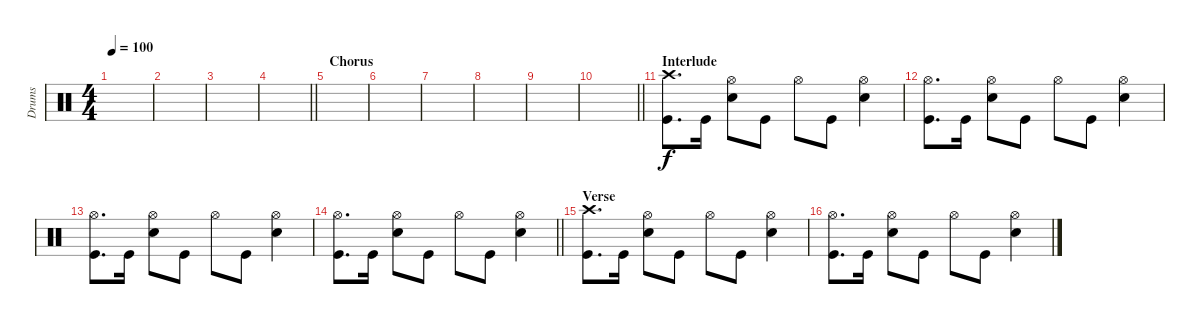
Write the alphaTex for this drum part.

\track ("Drums" "Drums") {instrument percussion}
\staff {score}
\articulation defaults
\ts (4 4)
\tempo 100
\clef neutral
\ks c
|
|
|
\barLineRight lightlight
|
\section ("" "Chorus")
|
|
|
|
|
\barLineRight lightlight
|
\section ("" "Interlude")
("Crash high (hit)" "Kick (hit)").8{d} "Kick (hit)".16 ("Hi-Hat (open)" "Snare (hit) 2").8 "Kick (hit)".8 "Hi-Hat (open)".8 "Kick (hit)".8 ("Hi-Hat (open)" "Snare (hit) 2").4 |
("Hi-Hat (open)" "Kick (hit)").8{d} "Kick (hit)".16 ("Hi-Hat (open)" "Snare (hit) 2").8 "Kick (hit)".8 "Hi-Hat (open)".8 "Kick (hit)".8 ("Hi-Hat (open)" "Snare (hit) 2").4 |
("Hi-Hat (open)" "Kick (hit)").8{d} "Kick (hit)".16 ("Hi-Hat (open)" "Snare (hit) 2").8 "Kick (hit)".8 "Hi-Hat (open)".8 "Kick (hit)".8 ("Hi-Hat (open)" "Snare (hit) 2").4 |
\barLineRight lightlight
("Hi-Hat (open)" "Kick (hit)").8{d} "Kick (hit)".16 ("Hi-Hat (open)" "Snare (hit) 2").8 "Kick (hit)".8 "Hi-Hat (open)".8 "Kick (hit)".8 ("Hi-Hat (open)" "Snare (hit) 2").4 |
\section ("" "Verse")
("Crash high (hit)" "Kick (hit)").8{d} "Kick (hit)".16 ("Hi-Hat (open)" "Snare (hit) 2").8 "Kick (hit)".8 "Hi-Hat (open)".8 "Kick (hit)".8 ("Hi-Hat (open)" "Snare (hit) 2").4 |
("Hi-Hat (open)" "Kick (hit)").8{d} "Kick (hit)".16 ("Hi-Hat (open)" "Snare (hit) 2").8 "Kick (hit)".8 "Hi-Hat (open)".8 "Kick (hit)".8 ("Hi-Hat (open)" "Snare (hit) 2").4
